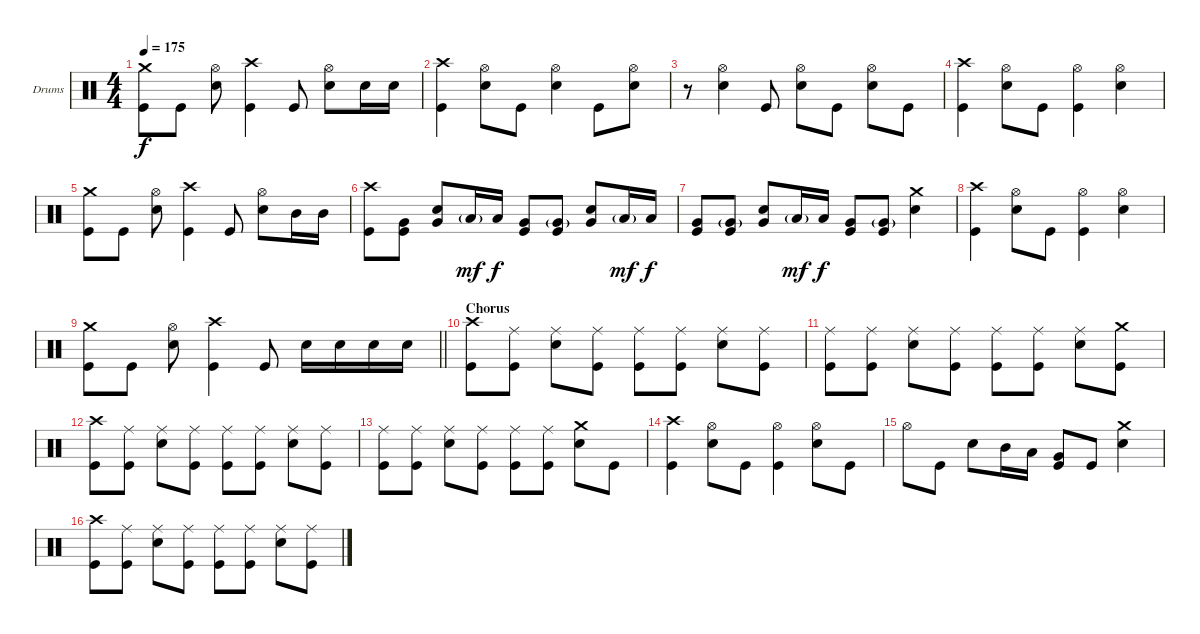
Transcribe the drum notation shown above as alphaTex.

\bracketExtendMode groupsimilarinstruments
\firstSystemTrackNameOrientation horizontal
\otherSystemsTrackNameOrientation horizontal
\track ("Drumkit" "Drums") {instrument percussion}
\staff {score}
\articulation defaults
\ts (4 4)
\tempo 175
\clef neutral
\ks c
("Crash medium (hit)" "Kick (hit)").8{dy f} "Kick (hit)".8 ("Hi-Hat (open)" "Snare (hit) 2").8 ("Crash high (hit)" "Kick (hit)").4 "Kick (hit)".8 ("Hi-Hat (open)" "Snare (hit) 2").8 "Snare (hit) 2".16 "Snare (hit) 2".16 |
("Crash high (hit)" "Kick (hit)").4 ("Hi-Hat (open)" "Snare (hit) 2").8 "Kick (hit)".8 ("Hi-Hat (open)" "Snare (hit) 2").4 "Kick (hit)".8 ("Hi-Hat (open)" "Snare (hit) 2").8 |
r.8 ("Hi-Hat (open)" "Snare (hit) 2").4 "Kick (hit)".8 ("Hi-Hat (open)" "Snare (hit) 2").8 "Kick (hit)".8 ("Hi-Hat (open)" "Snare (hit) 2").8 "Kick (hit)".8 |
("Crash high (hit)" "Kick (hit)").4 ("Hi-Hat (open)" "Snare (hit) 2").8 "Kick (hit)".8 ("Hi-Hat (open)" "Kick (hit)").4 ("Hi-Hat (open)" "Snare (hit) 2").4 |
("Crash medium (hit)" "Kick (hit)").8 "Kick (hit)".8 ("Hi-Hat (open)" "Snare (hit) 2").8 ("Crash high (hit)" "Kick (hit)").4 "Kick (hit)".8 ("Hi-Hat (open)" "Snare (hit) 2").8 "Mid Tom (hit)".16 "Mid Tom (hit)".16 |
("Crash high (hit)" "Kick (hit)").8 ("Very Low Tom (hit)" "Kick (hit)").8 ("Very Low Tom (hit)" "Snare (hit) 2").8 "Low Tom (hit)"{g}.16{dy mf} "Low Tom (hit)".16{dy f} ("Very Low Tom (hit)" "Kick (hit)").8 ("Very Low Tom (hit)"{g} "Kick (hit)").8 ("Very Low Tom (hit)" "Snare (hit) 2").8 "Low Tom (hit)"{g}.16{dy mf} "Low Tom (hit)".16{dy f} |
("Very Low Tom (hit)" "Kick (hit)").8 ("Very Low Tom (hit)"{g} "Kick (hit)").8 ("Very Low Tom (hit)" "Snare (hit) 2").8 "Low Tom (hit)"{g}.16{dy mf} "Low Tom (hit)".16{dy f} ("Very Low Tom (hit)" "Kick (hit)").8 ("Very Low Tom (hit)"{g} "Kick (hit)").8 ("Crash medium (hit)" "Snare (hit) 2").4 |
("Crash high (hit)" "Kick (hit)").4 ("Hi-Hat (open)" "Snare (hit) 2").8 "Kick (hit)".8 ("Hi-Hat (open)" "Kick (hit)").4 ("Hi-Hat (open)" "Snare (hit) 2").4 |
\barLineRight lightlight
("Crash medium (hit)" "Kick (hit)").8 "Kick (hit)".8 ("Hi-Hat (open)" "Snare (hit) 2").8 ("Crash high (hit)" "Kick (hit)").4 "Kick (hit)".8 "Snare (hit) 2".16 "Snare (hit) 2".16 "Snare (hit) 2".16 "Snare (hit) 2".16 |
\section ("" "Chorus")
("Crash high (hit)" "Kick (hit)").8 ("Ride (middle)" "Kick (hit)").8 ("Ride (middle)" "Snare (hit) 2").8 ("Ride (middle)" "Kick (hit)").8 ("Ride (middle)" "Kick (hit)").8 ("Ride (middle)" "Kick (hit)").8 ("Ride (middle)" "Snare (hit) 2").8 ("Ride (middle)" "Kick (hit)").8 |
("Ride (middle)" "Kick (hit)").8 ("Ride (middle)" "Kick (hit)").8 ("Ride (middle)" "Snare (hit) 2").8 ("Ride (middle)" "Kick (hit)").8 ("Ride (middle)" "Kick (hit)").8 ("Ride (middle)" "Kick (hit)").8 ("Ride (middle)" "Snare (hit) 2").8 ("Crash medium (hit)" "Kick (hit)").8 |
("Crash high (hit)" "Kick (hit)").8 ("Ride (middle)" "Kick (hit)").8 ("Ride (middle)" "Snare (hit) 2").8 ("Ride (middle)" "Kick (hit)").8 ("Ride (middle)" "Kick (hit)").8 ("Ride (middle)" "Kick (hit)").8 ("Ride (middle)" "Snare (hit) 2").8 ("Ride (middle)" "Kick (hit)").8 |
("Ride (middle)" "Kick (hit)").8 ("Ride (middle)" "Kick (hit)").8 ("Ride (middle)" "Snare (hit) 2").8 ("Ride (middle)" "Kick (hit)").8 ("Ride (middle)" "Kick (hit)").8 ("Ride (middle)" "Kick (hit)").8 ("Crash medium (hit)" "Snare (hit) 2").8 "Kick (hit)".8 |
("Crash high (hit)" "Kick (hit)").4 ("Hi-Hat (open)" "Snare (hit) 2").8 "Kick (hit)".8 ("Hi-Hat (open)" "Kick (hit)").4 ("Hi-Hat (open)" "Snare (hit) 2").8 "Kick (hit)".8 |
"Hi-Hat (open)".8 "Kick (hit)".8 "Snare (hit) 2".8 "Mid Tom (hit)".16 "Low Tom (hit)".16 ("Very Low Tom (hit)" "Kick (hit)").8 "Kick (hit)".8 ("Crash medium (hit)" "Snare (hit) 2").4 |
("Crash high (hit)" "Kick (hit)").8 ("Ride (middle)" "Kick (hit)").8 ("Ride (middle)" "Snare (hit) 2").8 ("Ride (middle)" "Kick (hit)").8 ("Ride (middle)" "Kick (hit)").8 ("Ride (middle)" "Kick (hit)").8 ("Ride (middle)" "Snare (hit) 2").8 ("Ride (middle)" "Kick (hit)").8
